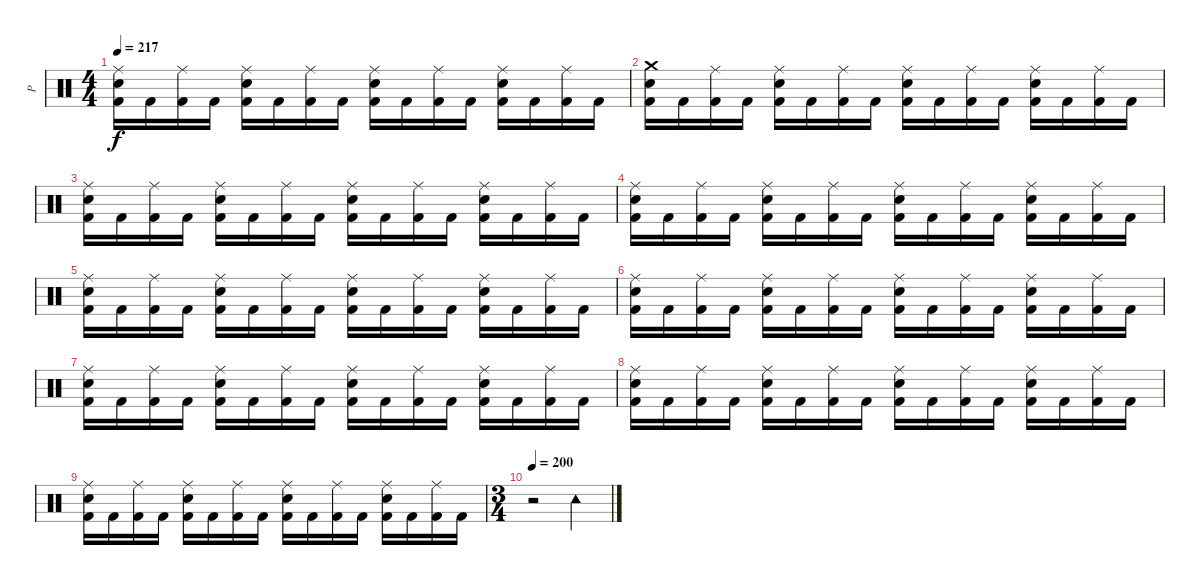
\track ("P" "P") {instrument percussion}
\staff {score}
\articulation defaults
\ts (4 4)
\tempo 217
\clef neutral
\ks c
("Ride (middle)" "Electric Snare (hit)" "Kick (hit) 2").16{dy f} "Kick (hit) 2".16 ("Ride (middle)" "Kick (hit) 2").16 "Kick (hit) 2".16 ("Ride (middle)" "Electric Snare (hit)" "Kick (hit) 2").16 "Kick (hit) 2".16 ("Ride (middle)" "Kick (hit) 2").16 "Kick (hit) 2".16 ("Ride (middle)" "Electric Snare (hit)" "Kick (hit) 2").16 "Kick (hit) 2".16 ("Ride (middle)" "Kick (hit) 2").16 "Kick (hit) 2".16 ("Ride (middle)" "Electric Snare (hit)" "Kick (hit) 2").16 "Kick (hit) 2".16 ("Ride (middle)" "Kick (hit) 2").16 "Kick (hit) 2".16 |
("Crash medium (hit)" "Electric Snare (hit)" "Kick (hit) 2").16 "Kick (hit) 2".16 ("Ride (middle)" "Kick (hit) 2").16 "Kick (hit) 2".16 ("Ride (middle)" "Electric Snare (hit)" "Kick (hit) 2").16 "Kick (hit) 2".16 ("Ride (middle)" "Kick (hit) 2").16 "Kick (hit) 2".16 ("Ride (middle)" "Electric Snare (hit)" "Kick (hit) 2").16 "Kick (hit) 2".16 ("Ride (middle)" "Kick (hit) 2").16 "Kick (hit) 2".16 ("Ride (middle)" "Electric Snare (hit)" "Kick (hit) 2").16 "Kick (hit) 2".16 ("Ride (middle)" "Kick (hit) 2").16 "Kick (hit) 2".16 |
("Ride (middle)" "Electric Snare (hit)" "Kick (hit) 2").16 "Kick (hit) 2".16 ("Ride (middle)" "Kick (hit) 2").16 "Kick (hit) 2".16 ("Ride (middle)" "Electric Snare (hit)" "Kick (hit) 2").16 "Kick (hit) 2".16 ("Ride (middle)" "Kick (hit) 2").16 "Kick (hit) 2".16 ("Ride (middle)" "Electric Snare (hit)" "Kick (hit) 2").16 "Kick (hit) 2".16 ("Ride (middle)" "Kick (hit) 2").16 "Kick (hit) 2".16 ("Ride (middle)" "Electric Snare (hit)" "Kick (hit) 2").16 "Kick (hit) 2".16 ("Ride (middle)" "Kick (hit) 2").16 "Kick (hit) 2".16 |
("Ride (middle)" "Electric Snare (hit)" "Kick (hit) 2").16 "Kick (hit) 2".16 ("Ride (middle)" "Kick (hit) 2").16 "Kick (hit) 2".16 ("Ride (middle)" "Electric Snare (hit)" "Kick (hit) 2").16 "Kick (hit) 2".16 ("Ride (middle)" "Kick (hit) 2").16 "Kick (hit) 2".16 ("Ride (middle)" "Electric Snare (hit)" "Kick (hit) 2").16 "Kick (hit) 2".16 ("Ride (middle)" "Kick (hit) 2").16 "Kick (hit) 2".16 ("Ride (middle)" "Electric Snare (hit)" "Kick (hit) 2").16 "Kick (hit) 2".16 ("Ride (middle)" "Kick (hit) 2").16 "Kick (hit) 2".16 |
("Ride (middle)" "Electric Snare (hit)" "Kick (hit) 2").16 "Kick (hit) 2".16 ("Ride (middle)" "Kick (hit) 2").16 "Kick (hit) 2".16 ("Ride (middle)" "Electric Snare (hit)" "Kick (hit) 2").16 "Kick (hit) 2".16 ("Ride (middle)" "Kick (hit) 2").16 "Kick (hit) 2".16 ("Ride (middle)" "Electric Snare (hit)" "Kick (hit) 2").16 "Kick (hit) 2".16 ("Ride (middle)" "Kick (hit) 2").16 "Kick (hit) 2".16 ("Ride (middle)" "Electric Snare (hit)" "Kick (hit) 2").16 "Kick (hit) 2".16 ("Ride (middle)" "Kick (hit) 2").16 "Kick (hit) 2".16 |
("Ride (middle)" "Electric Snare (hit)" "Kick (hit) 2").16 "Kick (hit) 2".16 ("Ride (middle)" "Kick (hit) 2").16 "Kick (hit) 2".16 ("Ride (middle)" "Electric Snare (hit)" "Kick (hit) 2").16 "Kick (hit) 2".16 ("Ride (middle)" "Kick (hit) 2").16 "Kick (hit) 2".16 ("Ride (middle)" "Electric Snare (hit)" "Kick (hit) 2").16 "Kick (hit) 2".16 ("Ride (middle)" "Kick (hit) 2").16 "Kick (hit) 2".16 ("Ride (middle)" "Electric Snare (hit)" "Kick (hit) 2").16 "Kick (hit) 2".16 ("Ride (middle)" "Kick (hit) 2").16 "Kick (hit) 2".16 |
("Ride (middle)" "Electric Snare (hit)" "Kick (hit) 2").16 "Kick (hit) 2".16 ("Ride (middle)" "Kick (hit) 2").16 "Kick (hit) 2".16 ("Ride (middle)" "Electric Snare (hit)" "Kick (hit) 2").16 "Kick (hit) 2".16 ("Ride (middle)" "Kick (hit) 2").16 "Kick (hit) 2".16 ("Ride (middle)" "Electric Snare (hit)" "Kick (hit) 2").16 "Kick (hit) 2".16 ("Ride (middle)" "Kick (hit) 2").16 "Kick (hit) 2".16 ("Ride (middle)" "Electric Snare (hit)" "Kick (hit) 2").16 "Kick (hit) 2".16 ("Ride (middle)" "Kick (hit) 2").16 "Kick (hit) 2".16 |
("Ride (middle)" "Electric Snare (hit)" "Kick (hit) 2").16 "Kick (hit) 2".16 ("Ride (middle)" "Kick (hit) 2").16 "Kick (hit) 2".16 ("Ride (middle)" "Electric Snare (hit)" "Kick (hit) 2").16 "Kick (hit) 2".16 ("Ride (middle)" "Kick (hit) 2").16 "Kick (hit) 2".16 ("Ride (middle)" "Electric Snare (hit)" "Kick (hit) 2").16 "Kick (hit) 2".16 ("Ride (middle)" "Kick (hit) 2").16 "Kick (hit) 2".16 ("Ride (middle)" "Electric Snare (hit)" "Kick (hit) 2").16 "Kick (hit) 2".16 ("Ride (middle)" "Kick (hit) 2").16 "Kick (hit) 2".16 |
("Ride (middle)" "Electric Snare (hit)" "Kick (hit) 2").16 "Kick (hit) 2".16 ("Ride (middle)" "Kick (hit) 2").16 "Kick (hit) 2".16 ("Ride (middle)" "Electric Snare (hit)" "Kick (hit) 2").16 "Kick (hit) 2".16 ("Ride (middle)" "Kick (hit) 2").16 "Kick (hit) 2".16 ("Ride (middle)" "Electric Snare (hit)" "Kick (hit) 2").16 "Kick (hit) 2".16 ("Ride (middle)" "Kick (hit) 2").16 "Kick (hit) 2".16 ("Ride (middle)" "Electric Snare (hit)" "Kick (hit) 2").16 "Kick (hit) 2".16 ("Ride (middle)" "Kick (hit) 2").16 "Kick (hit) 2".16 |
\ts (3 4)
\tempo 200
r.2 "Tambourine (hit)".4
